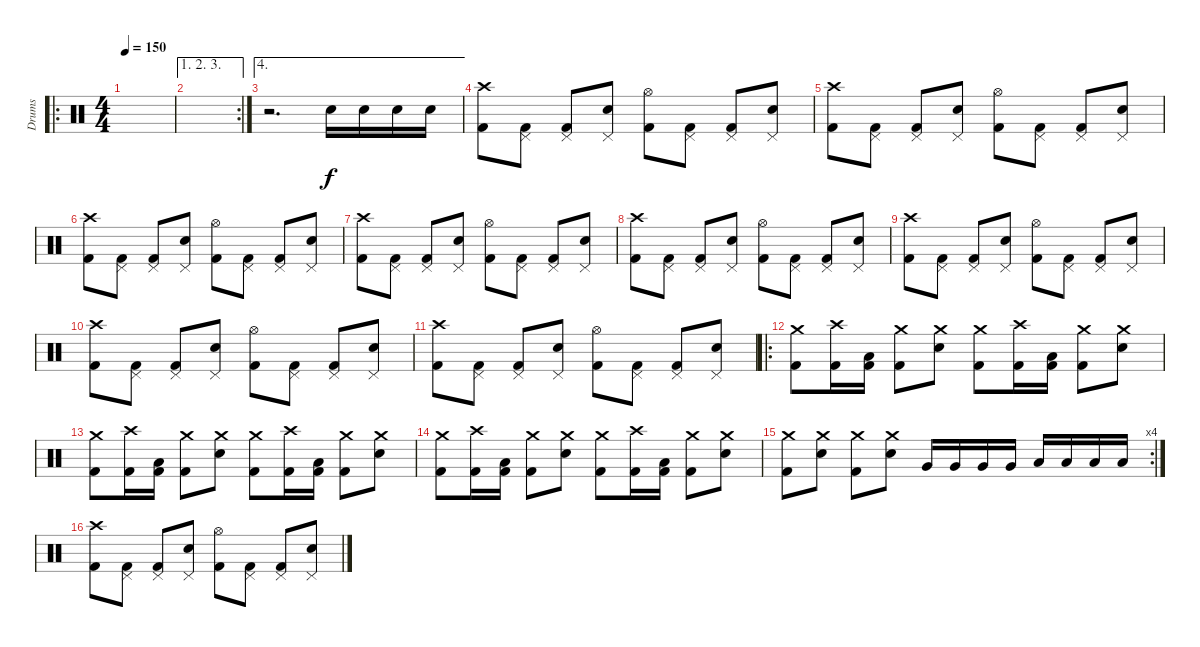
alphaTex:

\track ("Drums" "Drums") {instrument percussion}
\staff {score}
\articulation defaults
\ro
\ts (4 4)
\tempo 150
\clef neutral
\ks c
|
\ae (1 2 3)
\rc 2
|
\ae 4
r.2{d} "Electric Snare (hit)".16 "Electric Snare (hit)".16 "Electric Snare (hit)".16 "Electric Snare (hit)".16 |
("Crash high (hit)" "Kick (hit) 2").8 ("Pedal Hi-Hat (hit)" "Kick (hit) 2").8 ("Pedal Hi-Hat (hit)" "Kick (hit) 2").8 ("Pedal Hi-Hat (hit)" "Electric Snare (hit)").8 ("Hi-Hat (open)" "Kick (hit) 2").8 ("Pedal Hi-Hat (hit)" "Kick (hit) 2").8 ("Pedal Hi-Hat (hit)" "Kick (hit) 2").8 ("Pedal Hi-Hat (hit)" "Electric Snare (hit)").8 |
("Crash high (hit)" "Kick (hit) 2").8 ("Pedal Hi-Hat (hit)" "Kick (hit) 2").8 ("Pedal Hi-Hat (hit)" "Kick (hit) 2").8 ("Pedal Hi-Hat (hit)" "Electric Snare (hit)").8 ("Hi-Hat (open)" "Kick (hit) 2").8 ("Pedal Hi-Hat (hit)" "Kick (hit) 2").8 ("Pedal Hi-Hat (hit)" "Kick (hit) 2").8 ("Pedal Hi-Hat (hit)" "Electric Snare (hit)").8 |
("Crash high (hit)" "Kick (hit) 2").8 ("Pedal Hi-Hat (hit)" "Kick (hit) 2").8 ("Pedal Hi-Hat (hit)" "Kick (hit) 2").8 ("Pedal Hi-Hat (hit)" "Electric Snare (hit)").8 ("Hi-Hat (open)" "Kick (hit) 2").8 ("Pedal Hi-Hat (hit)" "Kick (hit) 2").8 ("Pedal Hi-Hat (hit)" "Kick (hit) 2").8 ("Pedal Hi-Hat (hit)" "Electric Snare (hit)").8 |
("Crash high (hit)" "Kick (hit) 2").8 ("Pedal Hi-Hat (hit)" "Kick (hit) 2").8 ("Pedal Hi-Hat (hit)" "Kick (hit) 2").8 ("Pedal Hi-Hat (hit)" "Electric Snare (hit)").8 ("Hi-Hat (open)" "Kick (hit) 2").8 ("Pedal Hi-Hat (hit)" "Kick (hit) 2").8 ("Pedal Hi-Hat (hit)" "Kick (hit) 2").8 ("Pedal Hi-Hat (hit)" "Electric Snare (hit)").8 |
("Crash high (hit)" "Kick (hit) 2").8 ("Pedal Hi-Hat (hit)" "Kick (hit) 2").8 ("Pedal Hi-Hat (hit)" "Kick (hit) 2").8 ("Pedal Hi-Hat (hit)" "Electric Snare (hit)").8 ("Hi-Hat (open)" "Kick (hit) 2").8 ("Pedal Hi-Hat (hit)" "Kick (hit) 2").8 ("Pedal Hi-Hat (hit)" "Kick (hit) 2").8 ("Pedal Hi-Hat (hit)" "Electric Snare (hit)").8 |
("Crash high (hit)" "Kick (hit) 2").8 ("Pedal Hi-Hat (hit)" "Kick (hit) 2").8 ("Pedal Hi-Hat (hit)" "Kick (hit) 2").8 ("Pedal Hi-Hat (hit)" "Electric Snare (hit)").8 ("Hi-Hat (open)" "Kick (hit) 2").8 ("Pedal Hi-Hat (hit)" "Kick (hit) 2").8 ("Pedal Hi-Hat (hit)" "Kick (hit) 2").8 ("Pedal Hi-Hat (hit)" "Electric Snare (hit)").8 |
("Crash high (hit)" "Kick (hit) 2").8 ("Pedal Hi-Hat (hit)" "Kick (hit) 2").8 ("Pedal Hi-Hat (hit)" "Kick (hit) 2").8 ("Pedal Hi-Hat (hit)" "Electric Snare (hit)").8 ("Hi-Hat (open)" "Kick (hit) 2").8 ("Pedal Hi-Hat (hit)" "Kick (hit) 2").8 ("Pedal Hi-Hat (hit)" "Kick (hit) 2").8 ("Pedal Hi-Hat (hit)" "Electric Snare (hit)").8 |
("Crash high (hit)" "Kick (hit) 2").8 ("Pedal Hi-Hat (hit)" "Kick (hit) 2").8 ("Pedal Hi-Hat (hit)" "Kick (hit) 2").8 ("Pedal Hi-Hat (hit)" "Electric Snare (hit)").8 ("Hi-Hat (open)" "Kick (hit) 2").8 ("Pedal Hi-Hat (hit)" "Kick (hit) 2").8 ("Pedal Hi-Hat (hit)" "Kick (hit) 2").8 ("Pedal Hi-Hat (hit)" "Electric Snare (hit)").8 |
\ro
("Crash medium (hit)" "Kick (hit) 2").8 ("Crash high (hit)" "Kick (hit) 2").16 ("Low Tom (hit)" "Kick (hit) 2").16 ("Crash medium (hit)" "Kick (hit) 2").8 ("Crash medium (hit)" "Electric Snare (hit)").8 ("Crash medium (hit)" "Kick (hit) 2").8 ("Crash high (hit)" "Kick (hit) 2").16 ("Low Tom (hit)" "Kick (hit) 2").16 ("Crash medium (hit)" "Kick (hit) 2").8 ("Crash medium (hit)" "Electric Snare (hit)").8 |
("Crash medium (hit)" "Kick (hit) 2").8 ("Crash high (hit)" "Kick (hit) 2").16 ("Low Tom (hit)" "Kick (hit) 2").16 ("Crash medium (hit)" "Kick (hit) 2").8 ("Crash medium (hit)" "Electric Snare (hit)").8 ("Crash medium (hit)" "Kick (hit) 2").8 ("Crash high (hit)" "Kick (hit) 2").16 ("Low Tom (hit)" "Kick (hit) 2").16 ("Crash medium (hit)" "Kick (hit) 2").8 ("Crash medium (hit)" "Electric Snare (hit)").8 |
("Crash medium (hit)" "Kick (hit) 2").8 ("Crash high (hit)" "Kick (hit) 2").16 ("Low Tom (hit)" "Kick (hit) 2").16 ("Crash medium (hit)" "Kick (hit) 2").8 ("Crash medium (hit)" "Electric Snare (hit)").8 ("Crash medium (hit)" "Kick (hit) 2").8 ("Crash high (hit)" "Kick (hit) 2").16 ("Low Tom (hit)" "Kick (hit) 2").16 ("Crash medium (hit)" "Kick (hit) 2").8 ("Crash medium (hit)" "Electric Snare (hit)").8 |
\rc 4
("Crash medium (hit)" "Kick (hit) 2").8 ("Crash medium (hit)" "Electric Snare (hit)").8 ("Crash medium (hit)" "Kick (hit) 2").8 ("Crash medium (hit)" "Electric Snare (hit)").8 "Very Low Tom (hit)".16 "Very Low Tom (hit)".16 "Very Low Tom (hit)".16 "Very Low Tom (hit)".16 "Low Tom (hit)".16 "Low Tom (hit)".16 "Low Tom (hit)".16 "Low Tom (hit)".16 |
("Crash high (hit)" "Kick (hit) 2").8 ("Pedal Hi-Hat (hit)" "Kick (hit) 2").8 ("Pedal Hi-Hat (hit)" "Kick (hit) 2").8 ("Pedal Hi-Hat (hit)" "Electric Snare (hit)").8 ("Hi-Hat (open)" "Kick (hit) 2").8 ("Pedal Hi-Hat (hit)" "Kick (hit) 2").8 ("Pedal Hi-Hat (hit)" "Kick (hit) 2").8 ("Pedal Hi-Hat (hit)" "Electric Snare (hit)").8
